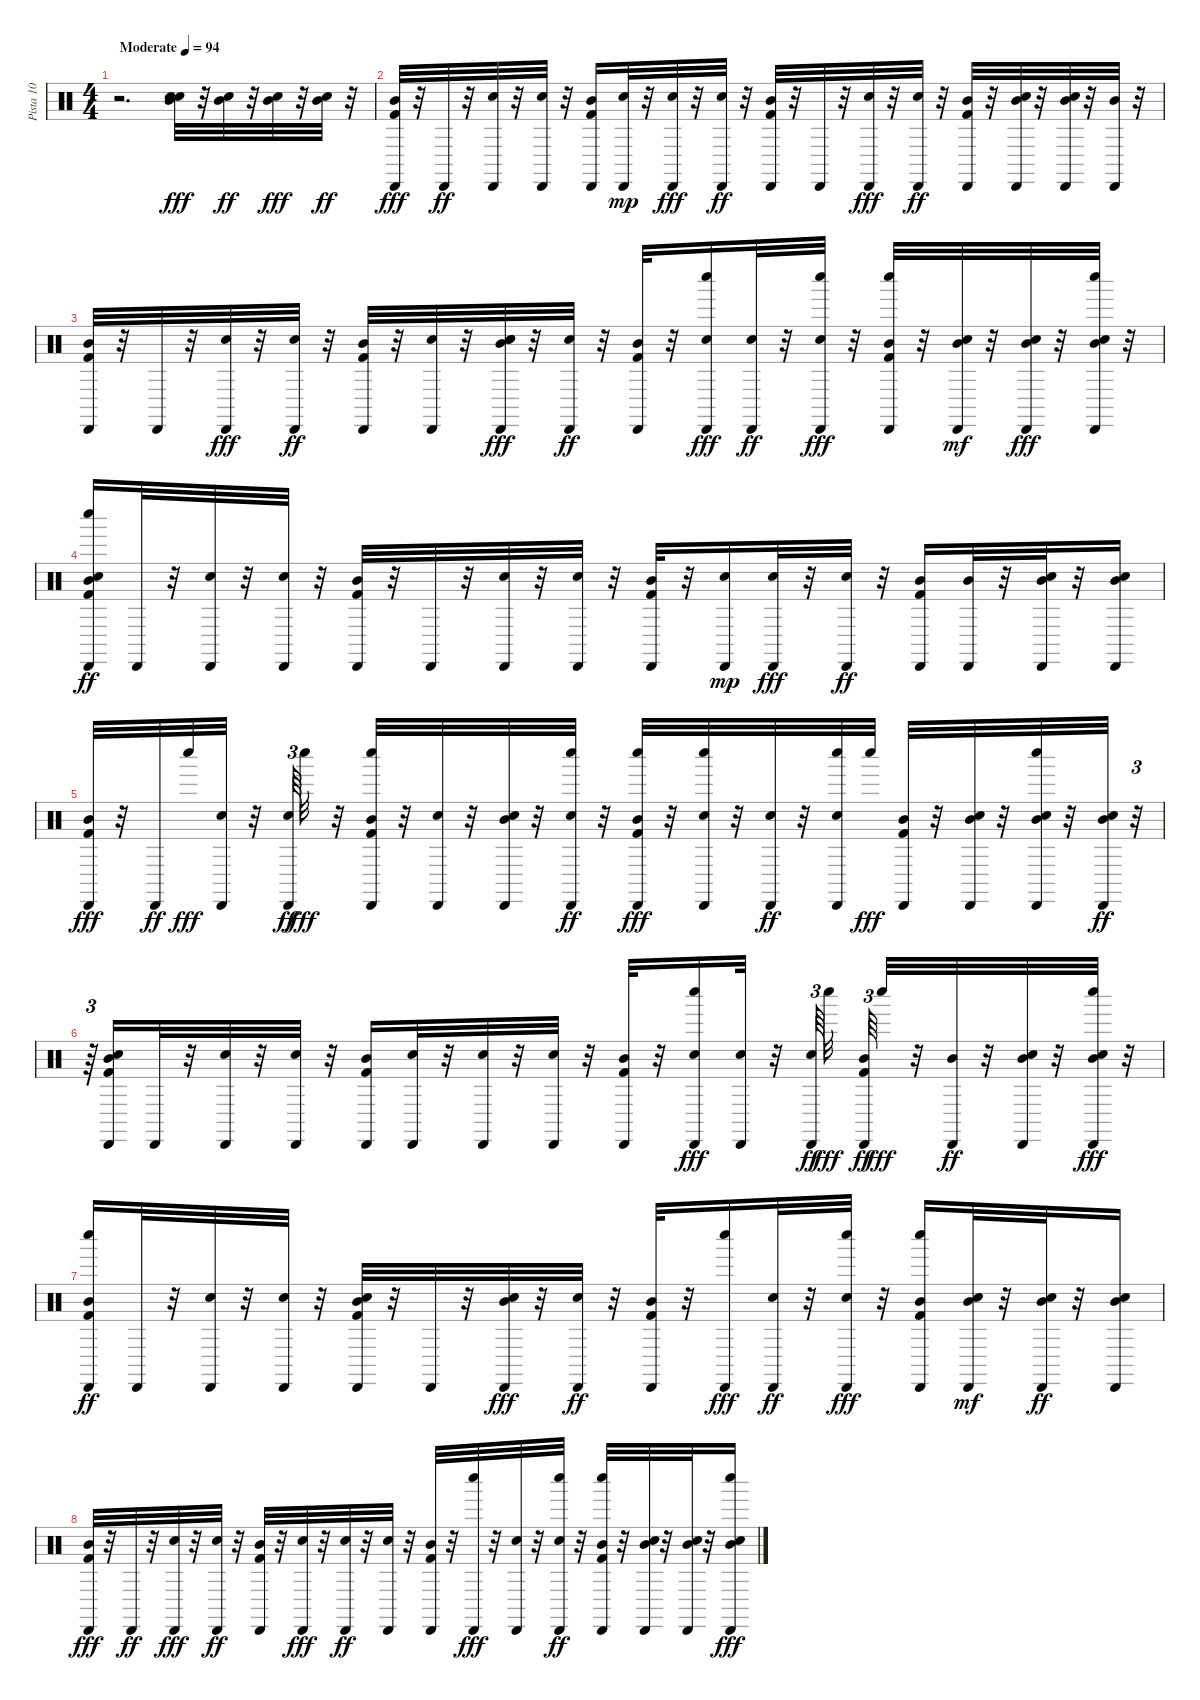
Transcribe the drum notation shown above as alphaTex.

\track ("Pista 10" "Pista 10") {instrument percussion}
\staff {score}
\articulation defaults
\ts (4 4)
\tempo (94 "Moderate")
\clef neutral
\ks c
r.2{d dy fff} ("Snare (hit) 2" "Electric Snare (hit)" "Mid Tom (hit)").32 r.32 ("Mid Tom (hit)" "Electric Snare (hit)").32{dy ff} r.32 ("Snare (hit) 2" "Mid Tom (hit)").32{dy fff} r.32 ("Mid Tom (hit)" "Electric Snare (hit)").32{dy ff} r.32 |
("Kick (hit) 2" "Mid Tom (hit)" "Cabasa (hit)").32{dy fff} r.32 "Cabasa (hit)".32{dy ff} r.32 ("Snare (hit) 2" "Cabasa (hit)").32 r.32 ("Cabasa (hit)" "Electric Snare (hit)").32 r.32 ("Cabasa (hit)" "Mid Tom (hit)" "Kick (hit) 2").16 ("Cabasa (hit)" "Electric Snare (hit)").32{dy mp} r.32 ("Cabasa (hit)" "Snare (hit) 2").32{dy fff} r.32 ("Electric Snare (hit)" "Cabasa (hit)").32{dy ff} r.32 ("Kick (hit) 2" "Mid Tom (hit)" "Cabasa (hit)").32 r.32 "Cabasa (hit)".32 r.32 ("Cabasa (hit)" "Snare (hit) 2").32{dy fff} r.32 ("Cabasa (hit)" "Electric Snare (hit)").32{dy ff} r.32 ("Cabasa (hit)" "Mid Tom (hit)" "Kick (hit) 2").32 r.32 ("Electric Snare (hit)" "Mid Tom (hit)" "Cabasa (hit)").32 r.32 ("Snare (hit) 2" "Mid Tom (hit)" "Cabasa (hit)").32 r.32 ("Mid Tom (hit)" "Cabasa (hit)").32 r.32 |
("Cabasa (hit)" "Mid Tom (hit)" "Kick (hit) 2").32 r.32 "Cabasa (hit)".32 r.32 ("Cabasa (hit)" "Snare (hit) 2").32{dy fff} r.32 ("Electric Snare (hit)" "Cabasa (hit)").32{dy ff} r.32 ("Kick (hit) 2" "Mid Tom (hit)" "Cabasa (hit)").32 r.32 ("Electric Snare (hit)" "Cabasa (hit)").32 r.32 ("Cabasa (hit)" "Mid Tom (hit)" "Electric Snare (hit)" "Snare (hit) 2").32{dy fff} r.32 ("Cabasa (hit)" "Electric Snare (hit)").32{dy ff} r.32 ("Cabasa (hit)" "Mid Tom (hit)" "Kick (hit) 2").32 r.32 ("Cabasa (hit)" "Electric Snare (hit)" "Whistle low (hit)").16{dy fff} ("Snare (hit) 2" "Cabasa (hit)").32{dy ff} r.32 ("Electric Snare (hit)" "Cabasa (hit)" "Whistle low (hit)").32{dy fff} r.32 ("Kick (hit) 2" "Mid Tom (hit)" "Cabasa (hit)" "Whistle low (hit)").32 r.32 ("Cabasa (hit)" "Mid Tom (hit)" "Electric Snare (hit)").32{dy mf} r.32 ("Cabasa (hit)" "Mid Tom (hit)" "Snare (hit) 2").32{dy fff} r.32 ("Whistle low (hit)" "Cabasa (hit)" "Mid Tom (hit)" "Snare (hit) 2").32 r.32 |
("Whistle low (hit)" "Kick (hit) 2" "Snare (hit) 2" "Mid Tom (hit)" "Cabasa (hit)").16{dy ff} "Cabasa (hit)".32 r.32 ("Snare (hit) 2" "Cabasa (hit)").32 r.32 ("Cabasa (hit)" "Electric Snare (hit)").32 r.32 ("Cabasa (hit)" "Mid Tom (hit)" "Kick (hit) 2").32 r.32 "Cabasa (hit)".32 r.32 ("Snare (hit) 2" "Cabasa (hit)").32 r.32 ("Electric Snare (hit)" "Cabasa (hit)").32 r.32 ("Kick (hit) 2" "Mid Tom (hit)" "Cabasa (hit)").32 r.32 ("Cabasa (hit)" "Electric Snare (hit)").16{dy mp} ("Cabasa (hit)" "Snare (hit) 2").32{dy fff} r.32 ("Cabasa (hit)" "Electric Snare (hit)").32{dy ff} r.32 ("Kick (hit) 2" "Mid Tom (hit)" "Cabasa (hit)").16 ("Mid Tom (hit)" "Cabasa (hit)").32 r.32 ("Snare (hit) 2" "Mid Tom (hit)" "Cabasa (hit)").32 r.32 ("Electric Snare (hit)" "Mid Tom (hit)" "Cabasa (hit)").16 |
("Cabasa (hit)" "Mid Tom (hit)" "Kick (hit) 2").32{dy fff} r.32 "Cabasa (hit)".32{dy ff} "Whistle low (hit)".32{dy fff} ("Cabasa (hit)" "Snare (hit) 2").32 r.32 ("Electric Snare (hit)" "Cabasa (hit)").64{tu (3 2) dy ff} "Whistle low (hit)".32{dy fff} r.32 ("Kick (hit) 2" "Mid Tom (hit)" "Cabasa (hit)" "Whistle low (hit)").32 r.32 ("Electric Snare (hit)" "Cabasa (hit)").32 r.32 ("Cabasa (hit)" "Mid Tom (hit)" "Snare (hit) 2").32 r.32 ("Whistle low (hit)" "Cabasa (hit)" "Electric Snare (hit)").32{dy ff} r.32 ("Cabasa (hit)" "Mid Tom (hit)" "Kick (hit) 2" "Whistle low (hit)").32{dy fff} r.32 ("Electric Snare (hit)" "Cabasa (hit)" "Whistle low (hit)").32 r.32 ("Snare (hit) 2" "Cabasa (hit)").32{dy ff} r.32 ("Whistle low (hit)" "Electric Snare (hit)" "Cabasa (hit)").32 "Whistle low (hit)".32{dy fff} ("Cabasa (hit)" "Mid Tom (hit)" "Kick (hit) 2").32 r.32 ("Cabasa (hit)" "Mid Tom (hit)" "Electric Snare (hit)").32 r.32 ("Whistle low (hit)" "Cabasa (hit)" "Mid Tom (hit)" "Snare (hit) 2").32 r.32 ("Snare (hit) 2" "Mid Tom (hit)" "Cabasa (hit)").32{dy ff} r.32{tu (3 2)} |
r.64{tu (3 2)} ("Mid Tom (hit)" "Electric Snare (hit)" "Kick (hit) 2" "Cabasa (hit)").16 "Cabasa (hit)".32 r.32 ("Snare (hit) 2" "Cabasa (hit)").32 r.32 ("Cabasa (hit)" "Electric Snare (hit)").32 r.32 ("Cabasa (hit)" "Mid Tom (hit)" "Kick (hit) 2").16 ("Cabasa (hit)" "Electric Snare (hit)").32 r.32 ("Snare (hit) 2" "Cabasa (hit)").32 r.32 ("Electric Snare (hit)" "Cabasa (hit)").32 r.32 ("Kick (hit) 2" "Mid Tom (hit)" "Cabasa (hit)").32 r.32 ("Cabasa (hit)" "Electric Snare (hit)" "Whistle low (hit)").16{dy fff} ("Cabasa (hit)" "Snare (hit) 2").32 r.32 ("Cabasa (hit)" "Electric Snare (hit)").64{tu (3 2) dy ff beam splitsecondary} "Whistle low (hit)".32{dy fff} ("Kick (hit) 2" "Mid Tom (hit)" "Cabasa (hit)").64{tu (3 2) dy ff} "Whistle low (hit)".32{dy fff} r.32 ("Mid Tom (hit)" "Cabasa (hit)").32{dy ff} r.32 ("Snare (hit) 2" "Mid Tom (hit)" "Cabasa (hit)").32 r.32 ("Whistle low (hit)" "Cabasa (hit)" "Mid Tom (hit)" "Electric Snare (hit)").32{dy fff} r.32 |
("Whistle low (hit)" "Cabasa (hit)" "Mid Tom (hit)" "Kick (hit) 2").16{dy ff} "Cabasa (hit)".32 r.32 ("Snare (hit) 2" "Cabasa (hit)").32 r.32 ("Electric Snare (hit)" "Cabasa (hit)").32 r.32 ("Kick (hit) 2" "Snare (hit) 2" "Mid Tom (hit)" "Cabasa (hit)").32 r.32 "Cabasa (hit)".32 r.32 ("Cabasa (hit)" "Mid Tom (hit)" "Snare (hit) 2").32{dy fff} r.32 ("Cabasa (hit)" "Electric Snare (hit)").32{dy ff} r.32 ("Cabasa (hit)" "Mid Tom (hit)" "Kick (hit) 2").32 r.32 ("Cabasa (hit)" "Whistle low (hit)").16{dy fff} ("Snare (hit) 2" "Cabasa (hit)").32{dy ff} r.32 ("Electric Snare (hit)" "Cabasa (hit)" "Whistle low (hit)").32{dy fff} r.32 ("Cabasa (hit)" "Mid Tom (hit)" "Kick (hit) 2" "Whistle low (hit)").16 ("Cabasa (hit)" "Mid Tom (hit)" "Electric Snare (hit)").32{dy mf} r.32 ("Snare (hit) 2" "Mid Tom (hit)" "Cabasa (hit)").32{dy ff} r.32 ("Snare (hit) 2" "Mid Tom (hit)" "Cabasa (hit)").16 |
("Kick (hit) 2" "Mid Tom (hit)" "Cabasa (hit)").32{dy fff} r.32 "Cabasa (hit)".32{dy ff} r.32 ("Cabasa (hit)" "Snare (hit) 2").32{dy fff} r.32 ("Cabasa (hit)" "Electric Snare (hit)").32{dy ff} r.32 ("Cabasa (hit)" "Mid Tom (hit)" "Kick (hit) 2").32 r.32 ("Electric Snare (hit)" "Cabasa (hit)").32{dy fff} r.32 ("Snare (hit) 2" "Cabasa (hit)").32{dy ff} r.32 ("Electric Snare (hit)" "Cabasa (hit)").32 r.32 ("Cabasa (hit)" "Mid Tom (hit)" "Kick (hit) 2").32 r.32 ("Cabasa (hit)" "Whistle low (hit)").32{dy fff} r.32 ("Cabasa (hit)" "Snare (hit) 2").32 r.32 ("Whistle low (hit)" "Cabasa (hit)" "Electric Snare (hit)").32{dy ff} r.32 ("Whistle low (hit)" "Kick (hit) 2" "Mid Tom (hit)" "Cabasa (hit)").32 r.32 ("Electric Snare (hit)" "Mid Tom (hit)" "Cabasa (hit)").32 r.32 ("Snare (hit) 2" "Mid Tom (hit)" "Cabasa (hit)").32 r.32 ("Whistle low (hit)" "Cabasa (hit)" "Mid Tom (hit)" "Electric Snare (hit)").16{dy fff}
